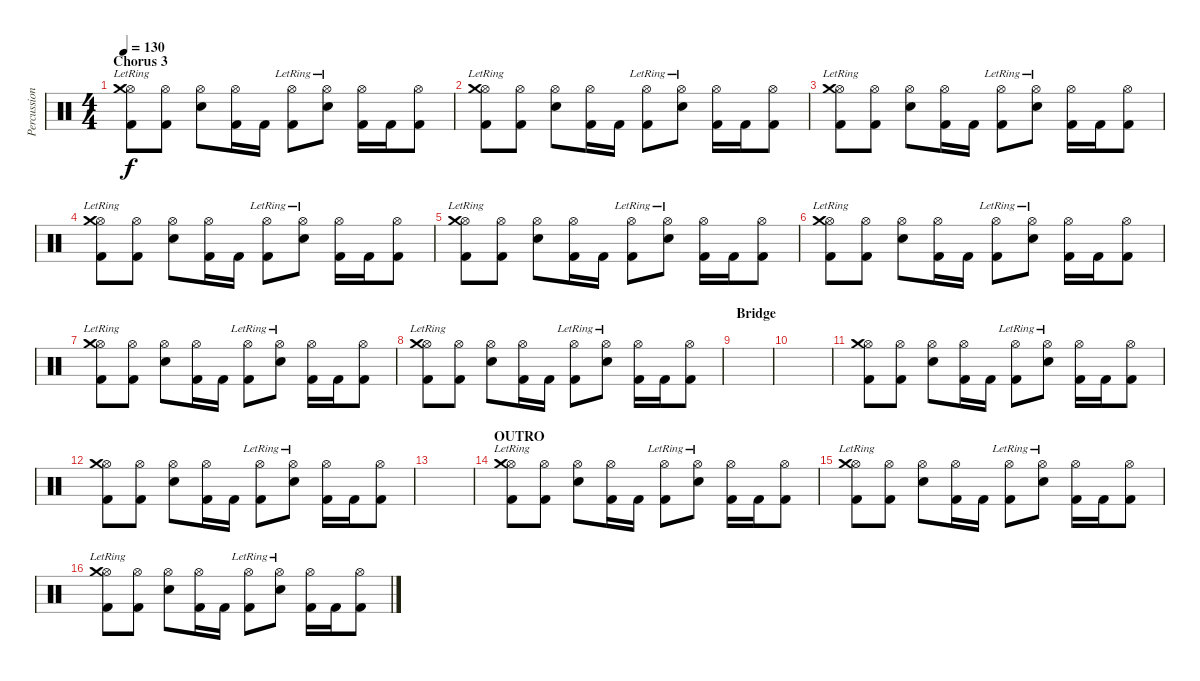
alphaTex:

\track ("Percussions" "Percussion") {instrument percussion}
\staff {score}
\articulation defaults
\ts (4 4)
\section ("" "Chorus 3")
\tempo 130
\clef neutral
\ks c
("Kick (hit) 2" "Hi-Hat (open)" "Crash medium (hit)"{lr}).8{dy f} ("Kick (hit) 2" "Hi-Hat (open)").8 ("Snare (hit) 2" "Hi-Hat (open)").8 ("Kick (hit) 2" "Hi-Hat (open)").16 "Kick (hit) 2".16 ("Kick (hit) 2" "Hi-Hat (open)"{lr}).8 ("Snare (hit) 2" "Hi-Hat (open)"{lr}).8 ("Kick (hit) 2" "Hi-Hat (open)").16 "Kick (hit) 2".16 ("Kick (hit) 2" "Hi-Hat (open)").8 |
("Kick (hit) 2" "Hi-Hat (open)" "Crash medium (hit)"{lr}).8 ("Kick (hit) 2" "Hi-Hat (open)").8 ("Snare (hit) 2" "Hi-Hat (open)").8 ("Kick (hit) 2" "Hi-Hat (open)").16 "Kick (hit) 2".16 ("Kick (hit) 2" "Hi-Hat (open)"{lr}).8 ("Snare (hit) 2" "Hi-Hat (open)"{lr}).8 ("Kick (hit) 2" "Hi-Hat (open)").16 "Kick (hit) 2".16 ("Kick (hit) 2" "Hi-Hat (open)").8 |
("Kick (hit) 2" "Hi-Hat (open)" "Crash medium (hit)"{lr}).8 ("Kick (hit) 2" "Hi-Hat (open)").8 ("Snare (hit) 2" "Hi-Hat (open)").8 ("Kick (hit) 2" "Hi-Hat (open)").16 "Kick (hit) 2".16 ("Kick (hit) 2" "Hi-Hat (open)"{lr}).8 ("Snare (hit) 2" "Hi-Hat (open)"{lr}).8 ("Kick (hit) 2" "Hi-Hat (open)").16 "Kick (hit) 2".16 ("Kick (hit) 2" "Hi-Hat (open)").8 |
("Kick (hit) 2" "Hi-Hat (open)" "Crash medium (hit)"{lr}).8 ("Kick (hit) 2" "Hi-Hat (open)").8 ("Snare (hit) 2" "Hi-Hat (open)").8 ("Kick (hit) 2" "Hi-Hat (open)").16 "Kick (hit) 2".16 ("Kick (hit) 2" "Hi-Hat (open)"{lr}).8 ("Snare (hit) 2" "Hi-Hat (open)"{lr}).8 ("Kick (hit) 2" "Hi-Hat (open)").16 "Kick (hit) 2".16 ("Kick (hit) 2" "Hi-Hat (open)").8 |
("Kick (hit) 2" "Hi-Hat (open)" "Crash medium (hit)"{lr}).8 ("Kick (hit) 2" "Hi-Hat (open)").8 ("Snare (hit) 2" "Hi-Hat (open)").8 ("Kick (hit) 2" "Hi-Hat (open)").16 "Kick (hit) 2".16 ("Kick (hit) 2" "Hi-Hat (open)"{lr}).8 ("Snare (hit) 2" "Hi-Hat (open)"{lr}).8 ("Kick (hit) 2" "Hi-Hat (open)").16 "Kick (hit) 2".16 ("Kick (hit) 2" "Hi-Hat (open)").8 |
("Kick (hit) 2" "Hi-Hat (open)" "Crash medium (hit)"{lr}).8 ("Kick (hit) 2" "Hi-Hat (open)").8 ("Snare (hit) 2" "Hi-Hat (open)").8 ("Kick (hit) 2" "Hi-Hat (open)").16 "Kick (hit) 2".16 ("Kick (hit) 2" "Hi-Hat (open)"{lr}).8 ("Snare (hit) 2" "Hi-Hat (open)"{lr}).8 ("Kick (hit) 2" "Hi-Hat (open)").16 "Kick (hit) 2".16 ("Kick (hit) 2" "Hi-Hat (open)").8 |
("Kick (hit) 2" "Hi-Hat (open)" "Crash medium (hit)"{lr}).8 ("Kick (hit) 2" "Hi-Hat (open)").8 ("Snare (hit) 2" "Hi-Hat (open)").8 ("Kick (hit) 2" "Hi-Hat (open)").16 "Kick (hit) 2".16 ("Kick (hit) 2" "Hi-Hat (open)"{lr}).8 ("Snare (hit) 2" "Hi-Hat (open)"{lr}).8 ("Kick (hit) 2" "Hi-Hat (open)").16 "Kick (hit) 2".16 ("Kick (hit) 2" "Hi-Hat (open)").8 |
("Kick (hit) 2" "Hi-Hat (open)" "Crash medium (hit)"{lr}).8 ("Kick (hit) 2" "Hi-Hat (open)").8 ("Snare (hit) 2" "Hi-Hat (open)").8 ("Kick (hit) 2" "Hi-Hat (open)").16 "Kick (hit) 2".16 ("Kick (hit) 2" "Hi-Hat (open)"{lr}).8 ("Snare (hit) 2" "Hi-Hat (open)"{lr}).8 ("Kick (hit) 2" "Hi-Hat (open)").16 "Kick (hit) 2".16 ("Kick (hit) 2" "Hi-Hat (open)").8 |
\section ("" "Bridge")
|
|
("Kick (hit) 2" "Hi-Hat (open)" "Crash medium (hit)").8 ("Kick (hit) 2" "Hi-Hat (open)").8 ("Snare (hit) 2" "Hi-Hat (open)").8 ("Kick (hit) 2" "Hi-Hat (open)").16 "Kick (hit) 2".16 ("Kick (hit) 2" "Hi-Hat (open)"{lr}).8 ("Snare (hit) 2" "Hi-Hat (open)"{lr}).8 ("Kick (hit) 2" "Hi-Hat (open)").16 "Kick (hit) 2".16 ("Kick (hit) 2" "Hi-Hat (open)").8 |
("Kick (hit) 2" "Hi-Hat (open)" "Crash medium (hit)").8 ("Kick (hit) 2" "Hi-Hat (open)").8 ("Snare (hit) 2" "Hi-Hat (open)").8 ("Kick (hit) 2" "Hi-Hat (open)").16 "Kick (hit) 2".16 ("Kick (hit) 2" "Hi-Hat (open)"{lr}).8 ("Snare (hit) 2" "Hi-Hat (open)"{lr}).8 ("Kick (hit) 2" "Hi-Hat (open)").16 "Kick (hit) 2".16 ("Kick (hit) 2" "Hi-Hat (open)").8 |
|
\section ("" "OUTRO")
("Kick (hit) 2" "Hi-Hat (open)" "Crash medium (hit)"{lr}).8 ("Kick (hit) 2" "Hi-Hat (open)").8 ("Snare (hit) 2" "Hi-Hat (open)").8 ("Kick (hit) 2" "Hi-Hat (open)").16 "Kick (hit) 2".16 ("Kick (hit) 2" "Hi-Hat (open)"{lr}).8 ("Snare (hit) 2" "Hi-Hat (open)"{lr}).8 ("Kick (hit) 2" "Hi-Hat (open)").16 "Kick (hit) 2".16 ("Kick (hit) 2" "Hi-Hat (open)").8 |
("Kick (hit) 2" "Hi-Hat (open)" "Crash medium (hit)"{lr}).8 ("Kick (hit) 2" "Hi-Hat (open)").8 ("Snare (hit) 2" "Hi-Hat (open)").8 ("Kick (hit) 2" "Hi-Hat (open)").16 "Kick (hit) 2".16 ("Kick (hit) 2" "Hi-Hat (open)"{lr}).8 ("Snare (hit) 2" "Hi-Hat (open)"{lr}).8 ("Kick (hit) 2" "Hi-Hat (open)").16 "Kick (hit) 2".16 ("Kick (hit) 2" "Hi-Hat (open)").8 |
("Kick (hit) 2" "Hi-Hat (open)" "Crash medium (hit)"{lr}).8 ("Kick (hit) 2" "Hi-Hat (open)").8 ("Snare (hit) 2" "Hi-Hat (open)").8 ("Kick (hit) 2" "Hi-Hat (open)").16 "Kick (hit) 2".16 ("Kick (hit) 2" "Hi-Hat (open)"{lr}).8 ("Snare (hit) 2" "Hi-Hat (open)"{lr}).8 ("Kick (hit) 2" "Hi-Hat (open)").16 "Kick (hit) 2".16 ("Kick (hit) 2" "Hi-Hat (open)").8
